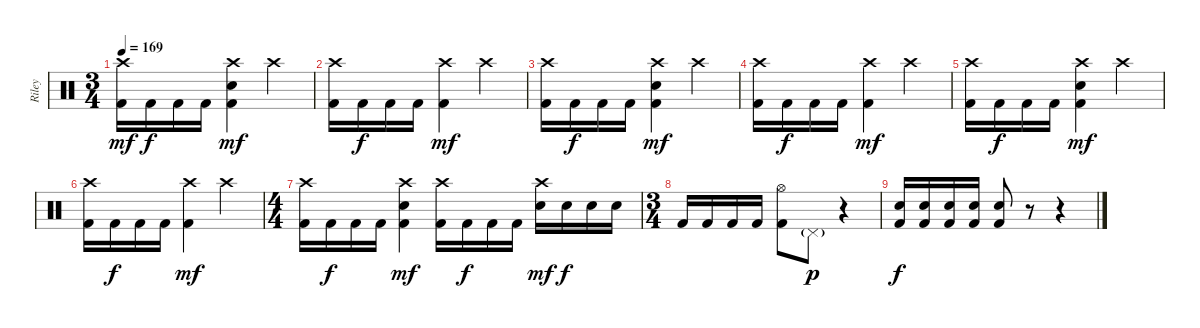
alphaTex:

\track ("Riley" "Riley") {instrument percussion}
\staff {score}
\articulation defaults
\ts (3 4)
\tempo 169
\clef neutral
\ks c
("Crash high (hit)" "Kick (hit) 2").16{dy mf} "Kick (hit) 2".16{dy f} "Kick (hit) 2".16 "Kick (hit) 2".16 ("Crash high (hit)" "Electric Snare (hit)" "Kick (hit) 2").4{dy mf} "Crash high (hit)".4 |
("Crash high (hit)" "Kick (hit) 2").16 "Kick (hit) 2".16{dy f} "Kick (hit) 2".16 "Kick (hit) 2".16 ("Crash high (hit)" "Kick (hit) 2").4{dy mf} "Crash high (hit)".4 |
("Crash high (hit)" "Kick (hit) 2").16 "Kick (hit) 2".16{dy f} "Kick (hit) 2".16 "Kick (hit) 2".16 ("Crash high (hit)" "Electric Snare (hit)" "Kick (hit) 2").4{dy mf} "Crash high (hit)".4 |
("Crash high (hit)" "Kick (hit) 2").16 "Kick (hit) 2".16{dy f} "Kick (hit) 2".16 "Kick (hit) 2".16 ("Crash high (hit)" "Kick (hit) 2").4{dy mf} "Crash high (hit)".4 |
("Crash high (hit)" "Kick (hit) 2").16 "Kick (hit) 2".16{dy f} "Kick (hit) 2".16 "Kick (hit) 2".16 ("Crash high (hit)" "Electric Snare (hit)" "Kick (hit) 2").4{dy mf} "Crash high (hit)".4 |
("Crash high (hit)" "Kick (hit) 2").16 "Kick (hit) 2".16{dy f} "Kick (hit) 2".16 "Kick (hit) 2".16 ("Crash high (hit)" "Kick (hit) 2").4{dy mf} "Crash high (hit)".4 |
\ts (4 4)
("Crash high (hit)" "Kick (hit) 2").16 "Kick (hit) 2".16{dy f} "Kick (hit) 2".16 "Kick (hit) 2".16 ("Crash high (hit)" "Electric Snare (hit)" "Kick (hit) 2").4{dy mf} ("Crash high (hit)" "Kick (hit) 2").16 "Kick (hit) 2".16{dy f} "Kick (hit) 2".16 "Kick (hit) 2".16 ("Crash high (hit)" "Electric Snare (hit)").16{dy mf} "Electric Snare (hit)".16{dy f} "Electric Snare (hit)".16 "Electric Snare (hit)".16 |
\ts (3 4)
"Kick (hit) 2".16 "Kick (hit) 2".16 "Kick (hit) 2".16 "Kick (hit) 2".16 ("Hi-Hat (open)" "Kick (hit) 2").8 "Pedal Hi-Hat (hit)"{g}.8{dy p} r.4 |
("Electric Snare (hit)" "Kick (hit) 2").16{dy f} ("Electric Snare (hit)" "Kick (hit) 2").16 ("Electric Snare (hit)" "Kick (hit) 2").16 ("Electric Snare (hit)" "Kick (hit) 2").16 ("Electric Snare (hit)" "Kick (hit) 2").8 r.8 r.4
